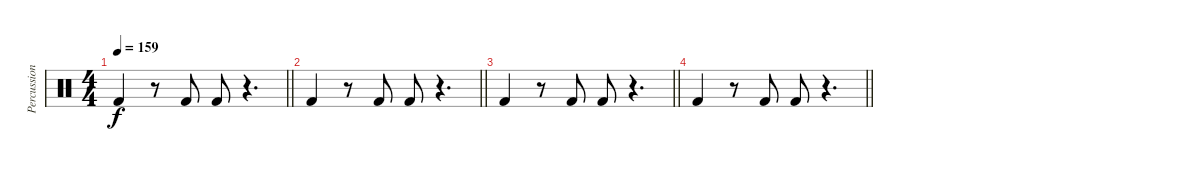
\track ("Percussion" "Percussion") {instrument percussion}
\staff {score}
\articulation defaults
\ts (4 4)
\tempo 159
\clef neutral
\barLineRight lightlight
\ks c "Kick (hit) 2".4{dy f}
r.8 "Kick (hit) 2".8 "Kick (hit) 2".8 r.4{d} |
\barLineRight lightlight "Kick (hit) 2".4
r.8 "Kick (hit) 2".8 "Kick (hit) 2".8 r.4{d} |
\barLineRight lightlight "Kick (hit) 2".4
r.8 "Kick (hit) 2".8 "Kick (hit) 2".8 r.4{d} |
\barLineRight lightlight "Kick (hit) 2".4
r.8 "Kick (hit) 2".8 "Kick (hit) 2".8 r.4{d}
